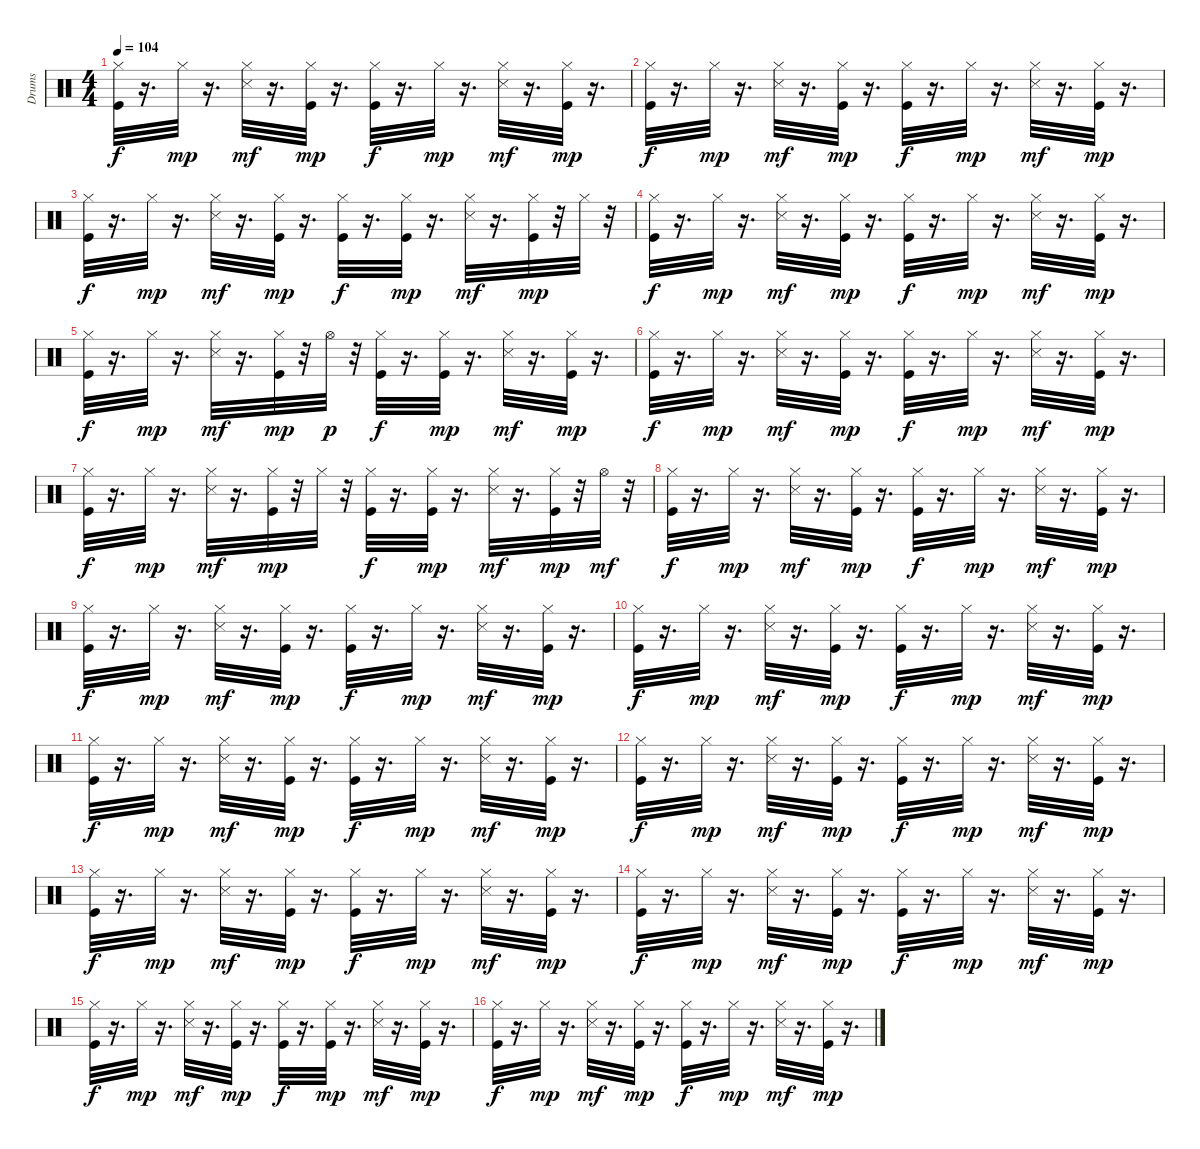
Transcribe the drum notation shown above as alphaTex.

\track ("Drums" "Drums") {instrument percussion}
\staff {score}
\articulation defaults
\ts (4 4)
\tempo 104
\clef neutral
\ks c
("Kick (hit)" "Hi-Hat (closed)").32{dy f} r.16{d} "Hi-Hat (closed)".32{dy mp} r.16{d} ("Hi-Hat (closed)" "Snare (side stick) 3").32{dy mf} r.16{d} ("Kick (hit)" "Hi-Hat (closed)").32{dy mp} r.16{d} ("Kick (hit)" "Hi-Hat (closed)").32{dy f} r.16{d} "Hi-Hat (closed)".32{dy mp} r.16{d} ("Hi-Hat (closed)" "Snare (side stick) 3").32{dy mf} r.16{d} ("Kick (hit)" "Hi-Hat (closed)").32{dy mp} r.16{d} |
("Kick (hit)" "Hi-Hat (closed)").32{dy f} r.16{d} "Hi-Hat (closed)".32{dy mp} r.16{d} ("Hi-Hat (closed)" "Snare (side stick) 3").32{dy mf} r.16{d} ("Kick (hit)" "Hi-Hat (closed)").32{dy mp} r.16{d} ("Kick (hit)" "Hi-Hat (closed)").32{dy f} r.16{d} "Hi-Hat (closed)".32{dy mp} r.16{d} ("Hi-Hat (closed)" "Snare (side stick) 3").32{dy mf} r.16{d} ("Kick (hit)" "Hi-Hat (closed)").32{dy mp} r.16{d} |
("Kick (hit)" "Hi-Hat (closed)").32{dy f} r.16{d} "Hi-Hat (closed)".32{dy mp} r.16{d} ("Hi-Hat (closed)" "Snare (side stick) 3").32{dy mf} r.16{d} ("Kick (hit)" "Hi-Hat (closed)").32{dy mp} r.16{d} ("Kick (hit)" "Hi-Hat (closed)").32{dy f} r.16{d} ("Kick (hit)" "Hi-Hat (closed)").32{dy mp} r.16{d} ("Hi-Hat (closed)" "Snare (side stick) 3").32{dy mf} r.16{d} ("Kick (hit)" "Hi-Hat (closed)").32{dy mp} r.32 "Hi-Hat (closed)".32 r.32 |
("Kick (hit)" "Hi-Hat (closed)").32{dy f} r.16{d} "Hi-Hat (closed)".32{dy mp} r.16{d} ("Hi-Hat (closed)" "Snare (side stick) 3").32{dy mf} r.16{d} ("Kick (hit)" "Hi-Hat (closed)").32{dy mp} r.16{d} ("Kick (hit)" "Hi-Hat (closed)").32{dy f} r.16{d} "Hi-Hat (closed)".32{dy mp} r.16{d} ("Hi-Hat (closed)" "Snare (side stick) 3").32{dy mf} r.16{d} ("Kick (hit)" "Hi-Hat (closed)").32{dy mp} r.16{d} |
("Kick (hit)" "Hi-Hat (closed)").32{dy f} r.16{d} "Hi-Hat (closed)".32{dy mp} r.16{d} ("Hi-Hat (closed)" "Snare (side stick) 3").32{dy mf} r.16{d} ("Kick (hit)" "Hi-Hat (closed)").32{dy mp} r.32 "Hi-Hat (open)".32{dy p} r.32 ("Kick (hit)" "Hi-Hat (closed)").32{dy f} r.16{d} ("Kick (hit)" "Hi-Hat (closed)").32{dy mp} r.16{d} ("Hi-Hat (closed)" "Snare (side stick) 3").32{dy mf} r.16{d} ("Kick (hit)" "Hi-Hat (closed)").32{dy mp} r.16{d} |
("Kick (hit)" "Hi-Hat (closed)").32{dy f} r.16{d} "Hi-Hat (closed)".32{dy mp} r.16{d} ("Hi-Hat (closed)" "Snare (side stick) 3").32{dy mf} r.16{d} ("Kick (hit)" "Hi-Hat (closed)").32{dy mp} r.16{d} ("Kick (hit)" "Hi-Hat (closed)").32{dy f} r.16{d} "Hi-Hat (closed)".32{dy mp} r.16{d} ("Hi-Hat (closed)" "Snare (side stick) 3").32{dy mf} r.16{d} ("Kick (hit)" "Hi-Hat (closed)").32{dy mp} r.16{d} |
("Kick (hit)" "Hi-Hat (closed)").32{dy f} r.16{d} "Hi-Hat (closed)".32{dy mp} r.16{d} ("Hi-Hat (closed)" "Snare (side stick) 3").32{dy mf} r.16{d} ("Kick (hit)" "Hi-Hat (closed)").32{dy mp} r.32 "Hi-Hat (closed)".32 r.32 ("Kick (hit)" "Hi-Hat (closed)").32{dy f} r.16{d} ("Kick (hit)" "Hi-Hat (closed)").32{dy mp} r.16{d} ("Hi-Hat (closed)" "Snare (side stick) 3").32{dy mf} r.16{d} ("Kick (hit)" "Hi-Hat (closed)").32{dy mp} r.32 "Hi-Hat (open)".32{dy mf} r.32 |
("Kick (hit)" "Hi-Hat (closed)").32{dy f} r.16{d} "Hi-Hat (closed)".32{dy mp} r.16{d} ("Hi-Hat (closed)" "Snare (side stick) 3").32{dy mf} r.16{d} ("Kick (hit)" "Hi-Hat (closed)").32{dy mp} r.16{d} ("Kick (hit)" "Hi-Hat (closed)").32{dy f} r.16{d} "Hi-Hat (closed)".32{dy mp} r.16{d} ("Hi-Hat (closed)" "Snare (side stick) 3").32{dy mf} r.16{d} ("Kick (hit)" "Hi-Hat (closed)").32{dy mp} r.16{d} |
("Kick (hit)" "Hi-Hat (closed)").32{dy f} r.16{d} "Hi-Hat (closed)".32{dy mp} r.16{d} ("Hi-Hat (closed)" "Snare (side stick) 3").32{dy mf} r.16{d} ("Kick (hit)" "Hi-Hat (closed)").32{dy mp} r.16{d} ("Kick (hit)" "Hi-Hat (closed)").32{dy f} r.16{d} "Hi-Hat (closed)".32{dy mp} r.16{d} ("Hi-Hat (closed)" "Snare (side stick) 3").32{dy mf} r.16{d} ("Kick (hit)" "Hi-Hat (closed)").32{dy mp} r.16{d} |
("Kick (hit)" "Hi-Hat (closed)").32{dy f} r.16{d} "Hi-Hat (closed)".32{dy mp} r.16{d} ("Hi-Hat (closed)" "Snare (side stick) 3").32{dy mf} r.16{d} ("Kick (hit)" "Hi-Hat (closed)").32{dy mp} r.16{d} ("Kick (hit)" "Hi-Hat (closed)").32{dy f} r.16{d} "Hi-Hat (closed)".32{dy mp} r.16{d} ("Hi-Hat (closed)" "Snare (side stick) 3").32{dy mf} r.16{d} ("Kick (hit)" "Hi-Hat (closed)").32{dy mp} r.16{d} |
("Kick (hit)" "Hi-Hat (closed)").32{dy f} r.16{d} "Hi-Hat (closed)".32{dy mp} r.16{d} ("Hi-Hat (closed)" "Snare (side stick) 3").32{dy mf} r.16{d} ("Kick (hit)" "Hi-Hat (closed)").32{dy mp} r.16{d} ("Kick (hit)" "Hi-Hat (closed)").32{dy f} r.16{d} "Hi-Hat (closed)".32{dy mp} r.16{d} ("Hi-Hat (closed)" "Snare (side stick) 3").32{dy mf} r.16{d} ("Kick (hit)" "Hi-Hat (closed)").32{dy mp} r.16{d} |
("Kick (hit)" "Hi-Hat (closed)").32{dy f} r.16{d} "Hi-Hat (closed)".32{dy mp} r.16{d} ("Hi-Hat (closed)" "Snare (side stick) 3").32{dy mf} r.16{d} ("Kick (hit)" "Hi-Hat (closed)").32{dy mp} r.16{d} ("Kick (hit)" "Hi-Hat (closed)").32{dy f} r.16{d} "Hi-Hat (closed)".32{dy mp} r.16{d} ("Hi-Hat (closed)" "Snare (side stick) 3").32{dy mf} r.16{d} ("Kick (hit)" "Hi-Hat (closed)").32{dy mp} r.16{d} |
("Kick (hit)" "Hi-Hat (closed)").32{dy f} r.16{d} "Hi-Hat (closed)".32{dy mp} r.16{d} ("Hi-Hat (closed)" "Snare (side stick) 3").32{dy mf} r.16{d} ("Kick (hit)" "Hi-Hat (closed)").32{dy mp} r.16{d} ("Kick (hit)" "Hi-Hat (closed)").32{dy f} r.16{d} "Hi-Hat (closed)".32{dy mp} r.16{d} ("Hi-Hat (closed)" "Snare (side stick) 3").32{dy mf} r.16{d} ("Kick (hit)" "Hi-Hat (closed)").32{dy mp} r.16{d} |
("Kick (hit)" "Hi-Hat (closed)").32{dy f} r.16{d} "Hi-Hat (closed)".32{dy mp} r.16{d} ("Hi-Hat (closed)" "Snare (side stick) 3").32{dy mf} r.16{d} ("Kick (hit)" "Hi-Hat (closed)").32{dy mp} r.16{d} ("Kick (hit)" "Hi-Hat (closed)").32{dy f} r.16{d} "Hi-Hat (closed)".32{dy mp} r.16{d} ("Hi-Hat (closed)" "Snare (side stick) 3").32{dy mf} r.16{d} ("Kick (hit)" "Hi-Hat (closed)").32{dy mp} r.16{d} |
("Kick (hit)" "Hi-Hat (closed)").32{dy f} r.16{d} "Hi-Hat (closed)".32{dy mp} r.16{d} ("Hi-Hat (closed)" "Snare (side stick) 3").32{dy mf} r.16{d} ("Kick (hit)" "Hi-Hat (closed)").32{dy mp} r.16{d} ("Kick (hit)" "Hi-Hat (closed)").32{dy f} r.16{d} ("Kick (hit)" "Hi-Hat (closed)").32{dy mp} r.16{d} ("Hi-Hat (closed)" "Snare (side stick) 3").32{dy mf} r.16{d} ("Kick (hit)" "Hi-Hat (closed)").32{dy mp} r.16{d} |
("Kick (hit)" "Hi-Hat (closed)").32{dy f} r.16{d} "Hi-Hat (closed)".32{dy mp} r.16{d} ("Hi-Hat (closed)" "Snare (side stick) 3").32{dy mf} r.16{d} ("Kick (hit)" "Hi-Hat (closed)").32{dy mp} r.16{d} ("Kick (hit)" "Hi-Hat (closed)").32{dy f} r.16{d} "Hi-Hat (closed)".32{dy mp} r.16{d} ("Hi-Hat (closed)" "Snare (side stick) 3").32{dy mf} r.16{d} ("Kick (hit)" "Hi-Hat (closed)").32{dy mp} r.16{d}
